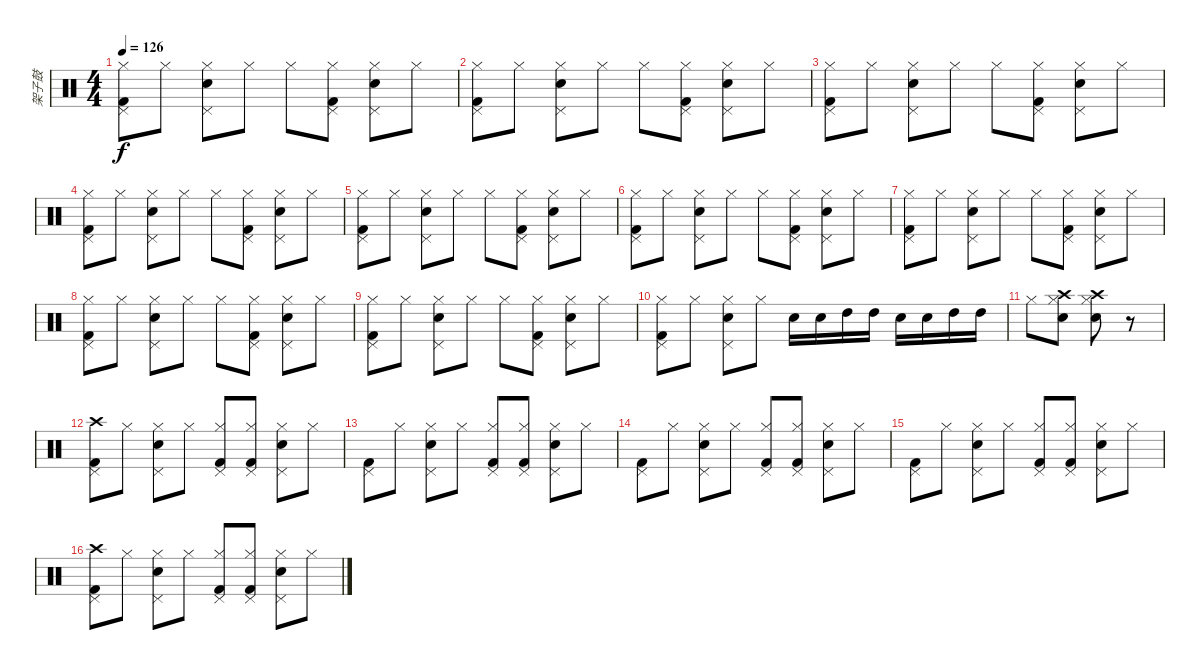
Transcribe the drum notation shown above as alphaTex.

\track ("架子鼓" "架子鼓") {instrument percussion}
\staff {score}
\articulation defaults
\ts (4 4)
\tempo 126
\clef neutral
\ks c
("Pedal Hi-Hat (hit)" "Hi-Hat (closed)" "Kick (hit) 2").8{dy f} "Hi-Hat (closed)".8 ("Pedal Hi-Hat (hit)" "Hi-Hat (closed)" "Snare (hit) 2").8 "Hi-Hat (closed)".8 "Hi-Hat (closed)".8 ("Pedal Hi-Hat (hit)" "Hi-Hat (closed)" "Kick (hit) 2").8 ("Pedal Hi-Hat (hit)" "Hi-Hat (closed)" "Snare (hit) 2").8 "Hi-Hat (closed)".8 |
("Pedal Hi-Hat (hit)" "Hi-Hat (closed)" "Kick (hit) 2").8 "Hi-Hat (closed)".8 ("Pedal Hi-Hat (hit)" "Hi-Hat (closed)" "Snare (hit) 2").8 "Hi-Hat (closed)".8 "Hi-Hat (closed)".8 ("Pedal Hi-Hat (hit)" "Hi-Hat (closed)" "Kick (hit) 2").8 ("Pedal Hi-Hat (hit)" "Hi-Hat (closed)" "Snare (hit) 2").8 "Hi-Hat (closed)".8 |
("Pedal Hi-Hat (hit)" "Hi-Hat (closed)" "Kick (hit) 2").8 "Hi-Hat (closed)".8 ("Pedal Hi-Hat (hit)" "Hi-Hat (closed)" "Snare (hit) 2").8 "Hi-Hat (closed)".8 "Hi-Hat (closed)".8 ("Pedal Hi-Hat (hit)" "Hi-Hat (closed)" "Kick (hit) 2").8 ("Pedal Hi-Hat (hit)" "Hi-Hat (closed)" "Snare (hit) 2").8 "Hi-Hat (closed)".8 |
("Pedal Hi-Hat (hit)" "Hi-Hat (closed)" "Kick (hit) 2").8 "Hi-Hat (closed)".8 ("Pedal Hi-Hat (hit)" "Hi-Hat (closed)" "Snare (hit) 2").8 "Hi-Hat (closed)".8 "Hi-Hat (closed)".8 ("Pedal Hi-Hat (hit)" "Hi-Hat (closed)" "Kick (hit) 2").8 ("Pedal Hi-Hat (hit)" "Hi-Hat (closed)" "Snare (hit) 2").8 "Hi-Hat (closed)".8 |
("Pedal Hi-Hat (hit)" "Hi-Hat (closed)" "Kick (hit) 2").8 "Hi-Hat (closed)".8 ("Pedal Hi-Hat (hit)" "Hi-Hat (closed)" "Snare (hit) 2").8 "Hi-Hat (closed)".8 "Hi-Hat (closed)".8 ("Pedal Hi-Hat (hit)" "Hi-Hat (closed)" "Kick (hit) 2").8 ("Pedal Hi-Hat (hit)" "Hi-Hat (closed)" "Snare (hit) 2").8 "Hi-Hat (closed)".8 |
("Pedal Hi-Hat (hit)" "Hi-Hat (closed)" "Kick (hit) 2").8 "Hi-Hat (closed)".8 ("Pedal Hi-Hat (hit)" "Hi-Hat (closed)" "Snare (hit) 2").8 "Hi-Hat (closed)".8 "Hi-Hat (closed)".8 ("Pedal Hi-Hat (hit)" "Hi-Hat (closed)" "Kick (hit) 2").8 ("Pedal Hi-Hat (hit)" "Hi-Hat (closed)" "Snare (hit) 2").8 "Hi-Hat (closed)".8 |
("Pedal Hi-Hat (hit)" "Hi-Hat (closed)" "Kick (hit) 2").8 "Hi-Hat (closed)".8 ("Pedal Hi-Hat (hit)" "Hi-Hat (closed)" "Snare (hit) 2").8 "Hi-Hat (closed)".8 "Hi-Hat (closed)".8 ("Pedal Hi-Hat (hit)" "Hi-Hat (closed)" "Kick (hit) 2").8 ("Pedal Hi-Hat (hit)" "Hi-Hat (closed)" "Snare (hit) 2").8 "Hi-Hat (closed)".8 |
("Pedal Hi-Hat (hit)" "Hi-Hat (closed)" "Kick (hit) 2").8 "Hi-Hat (closed)".8 ("Pedal Hi-Hat (hit)" "Hi-Hat (closed)" "Snare (hit) 2").8 "Hi-Hat (closed)".8 "Hi-Hat (closed)".8 ("Pedal Hi-Hat (hit)" "Hi-Hat (closed)" "Kick (hit) 2").8 ("Pedal Hi-Hat (hit)" "Hi-Hat (closed)" "Snare (hit) 2").8 "Hi-Hat (closed)".8 |
("Pedal Hi-Hat (hit)" "Hi-Hat (closed)" "Kick (hit) 2").8 "Hi-Hat (closed)".8 ("Pedal Hi-Hat (hit)" "Hi-Hat (closed)" "Snare (hit) 2").8 "Hi-Hat (closed)".8 "Hi-Hat (closed)".8 ("Pedal Hi-Hat (hit)" "Hi-Hat (closed)" "Kick (hit) 2").8 ("Pedal Hi-Hat (hit)" "Hi-Hat (closed)" "Snare (hit) 2").8 "Hi-Hat (closed)".8 |
("Pedal Hi-Hat (hit)" "Hi-Hat (closed)" "Kick (hit) 2").8 "Hi-Hat (closed)".8 ("Pedal Hi-Hat (hit)" "Hi-Hat (closed)" "Snare (hit) 2").8 "Hi-Hat (closed)".8 "Snare (hit) 2".16 "Snare (hit) 2".16 "High Tom (hit)".16 "High Tom (hit)".16 "Snare (hit) 2".16 "Snare (hit) 2".16 "High Tom (hit)".16 "High Tom (hit)".16 |
"Hi-Hat (closed)".8 ("Crash high (hit)" "Hi-Hat (closed)" "Snare (hit) 2").8 ("Crash high (hit)" "Hi-Hat (closed)" "Snare (hit) 2").8 r.8 |
("Crash high (hit)" "Pedal Hi-Hat (hit)" "Kick (hit) 2").8 "Hi-Hat (closed)".8 ("Pedal Hi-Hat (hit)" "Hi-Hat (closed)" "Snare (hit) 2").8 "Hi-Hat (closed)".8 ("Pedal Hi-Hat (hit)" "Hi-Hat (closed)" "Kick (hit) 2").8 ("Pedal Hi-Hat (hit)" "Hi-Hat (closed)" "Kick (hit) 2").8 ("Pedal Hi-Hat (hit)" "Hi-Hat (closed)" "Snare (hit) 2").8 "Hi-Hat (closed)".8 |
("Pedal Hi-Hat (hit)" "Kick (hit) 2").8 "Hi-Hat (closed)".8 ("Pedal Hi-Hat (hit)" "Hi-Hat (closed)" "Snare (hit) 2").8 "Hi-Hat (closed)".8 ("Pedal Hi-Hat (hit)" "Hi-Hat (closed)" "Kick (hit) 2").8 ("Pedal Hi-Hat (hit)" "Hi-Hat (closed)" "Kick (hit) 2").8 ("Pedal Hi-Hat (hit)" "Hi-Hat (closed)" "Snare (hit) 2").8 "Hi-Hat (closed)".8 |
("Pedal Hi-Hat (hit)" "Kick (hit) 2").8 "Hi-Hat (closed)".8 ("Pedal Hi-Hat (hit)" "Hi-Hat (closed)" "Snare (hit) 2").8 "Hi-Hat (closed)".8 ("Pedal Hi-Hat (hit)" "Hi-Hat (closed)" "Kick (hit) 2").8 ("Pedal Hi-Hat (hit)" "Hi-Hat (closed)" "Kick (hit) 2").8 ("Pedal Hi-Hat (hit)" "Hi-Hat (closed)" "Snare (hit) 2").8 "Hi-Hat (closed)".8 |
("Pedal Hi-Hat (hit)" "Kick (hit) 2").8 "Hi-Hat (closed)".8 ("Pedal Hi-Hat (hit)" "Hi-Hat (closed)" "Snare (hit) 2").8 "Hi-Hat (closed)".8 ("Pedal Hi-Hat (hit)" "Hi-Hat (closed)" "Kick (hit) 2").8 ("Pedal Hi-Hat (hit)" "Hi-Hat (closed)" "Kick (hit) 2").8 ("Pedal Hi-Hat (hit)" "Hi-Hat (closed)" "Snare (hit) 2").8 "Hi-Hat (closed)".8 |
("Crash high (hit)" "Pedal Hi-Hat (hit)" "Kick (hit) 2").8 "Hi-Hat (closed)".8 ("Pedal Hi-Hat (hit)" "Hi-Hat (closed)" "Snare (hit) 2").8 "Hi-Hat (closed)".8 ("Pedal Hi-Hat (hit)" "Hi-Hat (closed)" "Kick (hit) 2").8 ("Pedal Hi-Hat (hit)" "Hi-Hat (closed)" "Kick (hit) 2").8 ("Pedal Hi-Hat (hit)" "Hi-Hat (closed)" "Snare (hit) 2").8 "Hi-Hat (closed)".8
